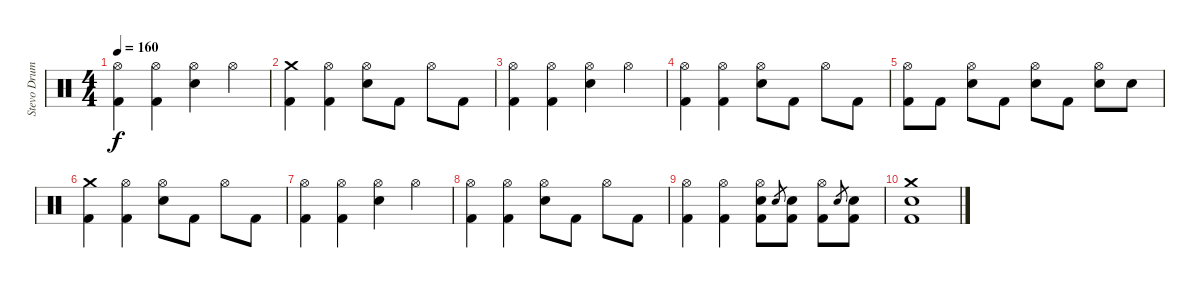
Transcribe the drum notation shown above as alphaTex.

\track ("Stevo Drums" "Stevo Drum") {instrument percussion}
\staff {score}
\articulation defaults
\ts (4 4)
\tempo 160
\clef neutral
\ks c
("Hi-Hat (open)" "Kick (hit) 2").4{dy f} ("Hi-Hat (open)" "Kick (hit) 2").4 ("Electric Snare (hit)" "Hi-Hat (open)").4 "Hi-Hat (open)".4 |
("Crash medium (hit)" "Kick (hit) 2").4 ("Hi-Hat (open)" "Kick (hit) 2").4 ("Electric Snare (hit)" "Hi-Hat (open)").8 "Kick (hit) 2".8 "Hi-Hat (open)".8 "Kick (hit) 2".8 |
("Hi-Hat (open)" "Kick (hit) 2").4 ("Hi-Hat (open)" "Kick (hit) 2").4 ("Electric Snare (hit)" "Hi-Hat (open)").4 "Hi-Hat (open)".4 |
("Hi-Hat (open)" "Kick (hit) 2").4 ("Hi-Hat (open)" "Kick (hit) 2").4 ("Electric Snare (hit)" "Hi-Hat (open)").8 "Kick (hit) 2".8 "Hi-Hat (open)".8 "Kick (hit) 2".8 |
("Hi-Hat (open)" "Kick (hit) 2").8 "Kick (hit) 2".8 ("Hi-Hat (open)" "Electric Snare (hit)").8 "Kick (hit) 2".8 ("Hi-Hat (open)" "Electric Snare (hit)").8 "Kick (hit) 2".8 ("Hi-Hat (open)" "Electric Snare (hit)").8 "Electric Snare (hit)".8 |
("Crash medium (hit)" "Kick (hit) 2").4 ("Hi-Hat (open)" "Kick (hit) 2").4 ("Electric Snare (hit)" "Hi-Hat (open)").8 "Kick (hit) 2".8 "Hi-Hat (open)".8 "Kick (hit) 2".8 |
("Hi-Hat (open)" "Kick (hit) 2").4 ("Hi-Hat (open)" "Kick (hit) 2").4 ("Electric Snare (hit)" "Hi-Hat (open)").4 "Hi-Hat (open)".4 |
("Hi-Hat (open)" "Kick (hit) 2").4 ("Hi-Hat (open)" "Kick (hit) 2").4 ("Electric Snare (hit)" "Hi-Hat (open)").8 "Kick (hit) 2".8 "Hi-Hat (open)".8 "Kick (hit) 2".8 |
("Hi-Hat (open)" "Kick (hit) 2").4 ("Hi-Hat (open)" "Kick (hit) 2").4 ("Electric Snare (hit)" "Hi-Hat (open)" "Kick (hit) 2").8 "Electric Snare (hit)".8{gr} ("Electric Snare (hit)" "Kick (hit) 2").8 ("Hi-Hat (open)" "Kick (hit) 2").8 "Electric Snare (hit)".8{gr} ("Electric Snare (hit)" "Kick (hit) 2").8 |
("Crash medium (hit)" "Electric Snare (hit)" "Kick (hit) 2").1
